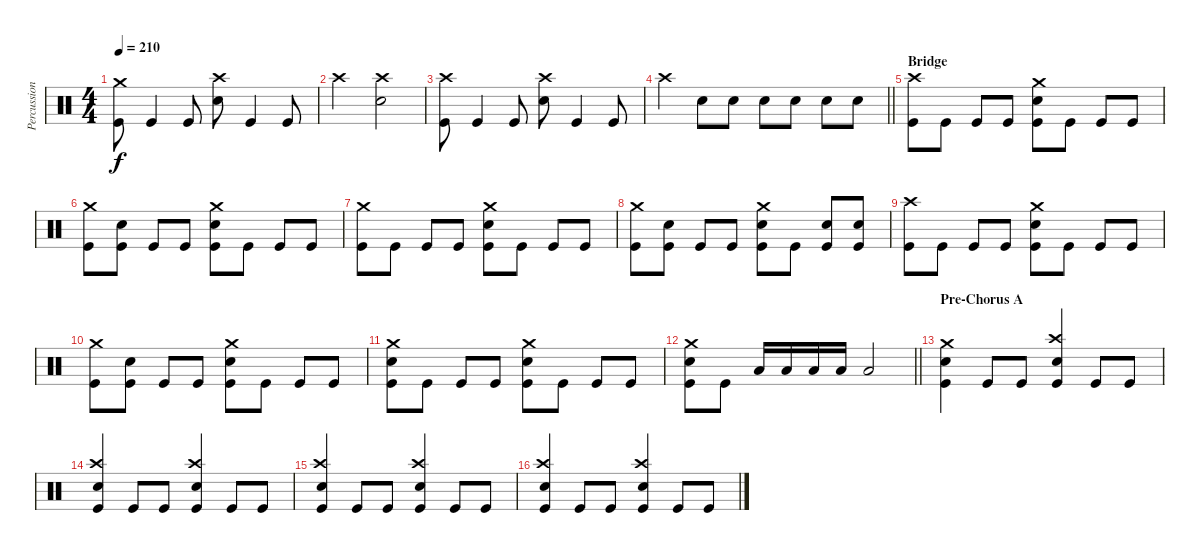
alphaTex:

\track ("Percussion" "Percussion") {instrument percussion}
\staff {score}
\articulation defaults
\ts (4 4)
\tempo 210
\clef neutral
\ks c
("Crash medium (hit)" "Kick (hit)").8{dy f} "Kick (hit)".4 "Kick (hit)".8 ("Crash high (hit)" "Electric Snare (hit)").8 "Kick (hit)".4 "Kick (hit)".8 |
"Crash high (hit)".2 ("Crash high (hit)" "Electric Snare (hit)").2 |
("Crash high (hit)" "Kick (hit)").8 "Kick (hit)".4 "Kick (hit)".8 ("Crash high (hit)" "Electric Snare (hit)").8 "Kick (hit)".4 "Kick (hit)".8 |
\barLineRight lightlight "Crash high (hit)".4 "Electric Snare (hit)".8 "Electric Snare (hit)".8 "Electric Snare (hit)".8 "Electric Snare (hit)".8 "Electric Snare (hit)".8 "Electric Snare (hit)".8
|
\section ("" "Bridge")
("Crash high (hit)" "Kick (hit)").8 "Kick (hit)".8 "Kick (hit)".8 "Kick (hit)".8 ("Crash medium (hit)" "Electric Snare (hit)" "Kick (hit)").8 "Kick (hit)".8 "Kick (hit)".8 "Kick (hit)".8 |
("Crash medium (hit)" "Kick (hit)").8 ("Electric Snare (hit)" "Kick (hit)").8 "Kick (hit)".8 "Kick (hit)".8 ("Crash medium (hit)" "Electric Snare (hit)" "Kick (hit)").8 "Kick (hit)".8 "Kick (hit)".8 "Kick (hit)".8 |
("Crash medium (hit)" "Kick (hit)").8 "Kick (hit)".8 "Kick (hit)".8 "Kick (hit)".8 ("Crash medium (hit)" "Electric Snare (hit)" "Kick (hit)").8 "Kick (hit)".8 "Kick (hit)".8 "Kick (hit)".8 |
("Crash medium (hit)" "Kick (hit)").8 ("Electric Snare (hit)" "Kick (hit)").8 "Kick (hit)".8 "Kick (hit)".8 ("Crash medium (hit)" "Electric Snare (hit)" "Kick (hit)").8 "Kick (hit)".8 ("Electric Snare (hit)" "Kick (hit)").8 ("Electric Snare (hit)" "Kick (hit)").8 |
("Crash high (hit)" "Kick (hit)").8 "Kick (hit)".8 "Kick (hit)".8 "Kick (hit)".8 ("Crash medium (hit)" "Electric Snare (hit)" "Kick (hit)").8 "Kick (hit)".8 "Kick (hit)".8 "Kick (hit)".8 |
("Crash medium (hit)" "Kick (hit)").8 ("Electric Snare (hit)" "Kick (hit)").8 "Kick (hit)".8 "Kick (hit)".8 ("Crash medium (hit)" "Electric Snare (hit)" "Kick (hit)").8 "Kick (hit)".8 "Kick (hit)".8 "Kick (hit)".8 |
("Crash medium (hit)" "Electric Snare (hit)" "Kick (hit)").8 "Kick (hit)".8 "Kick (hit)".8 "Kick (hit)".8 ("Crash medium (hit)" "Electric Snare (hit)" "Kick (hit)").8 "Kick (hit)".8 "Kick (hit)".8 "Kick (hit)".8 |
\barLineRight lightlight
("Crash medium (hit)" "Electric Snare (hit)" "Kick (hit)").8 "Kick (hit)".8 "Low Tom (hit)".16 "Low Tom (hit)".16 "Low Tom (hit)".16 "Low Tom (hit)".16 "Low Floor Tom (hit)".2 |
\section ("" "Pre-Chorus A")
("Crash medium (hit)" "Electric Snare (hit)" "Kick (hit)").4 "Kick (hit)".8 "Kick (hit)".8 ("Crash high (hit)" "Electric Snare (hit)" "Kick (hit)").4 "Kick (hit)".8 "Kick (hit)".8 |
("Crash high (hit)" "Electric Snare (hit)" "Kick (hit)").4 "Kick (hit)".8 "Kick (hit)".8 ("Crash high (hit)" "Electric Snare (hit)" "Kick (hit)").4 "Kick (hit)".8 "Kick (hit)".8 |
("Crash high (hit)" "Electric Snare (hit)" "Kick (hit)").4 "Kick (hit)".8 "Kick (hit)".8 ("Crash high (hit)" "Electric Snare (hit)" "Kick (hit)").4 "Kick (hit)".8 "Kick (hit)".8 |
("Crash high (hit)" "Electric Snare (hit)" "Kick (hit)").4 "Kick (hit)".8 "Kick (hit)".8 ("Crash high (hit)" "Electric Snare (hit)" "Kick (hit)").4 "Kick (hit)".8 "Kick (hit)".8
